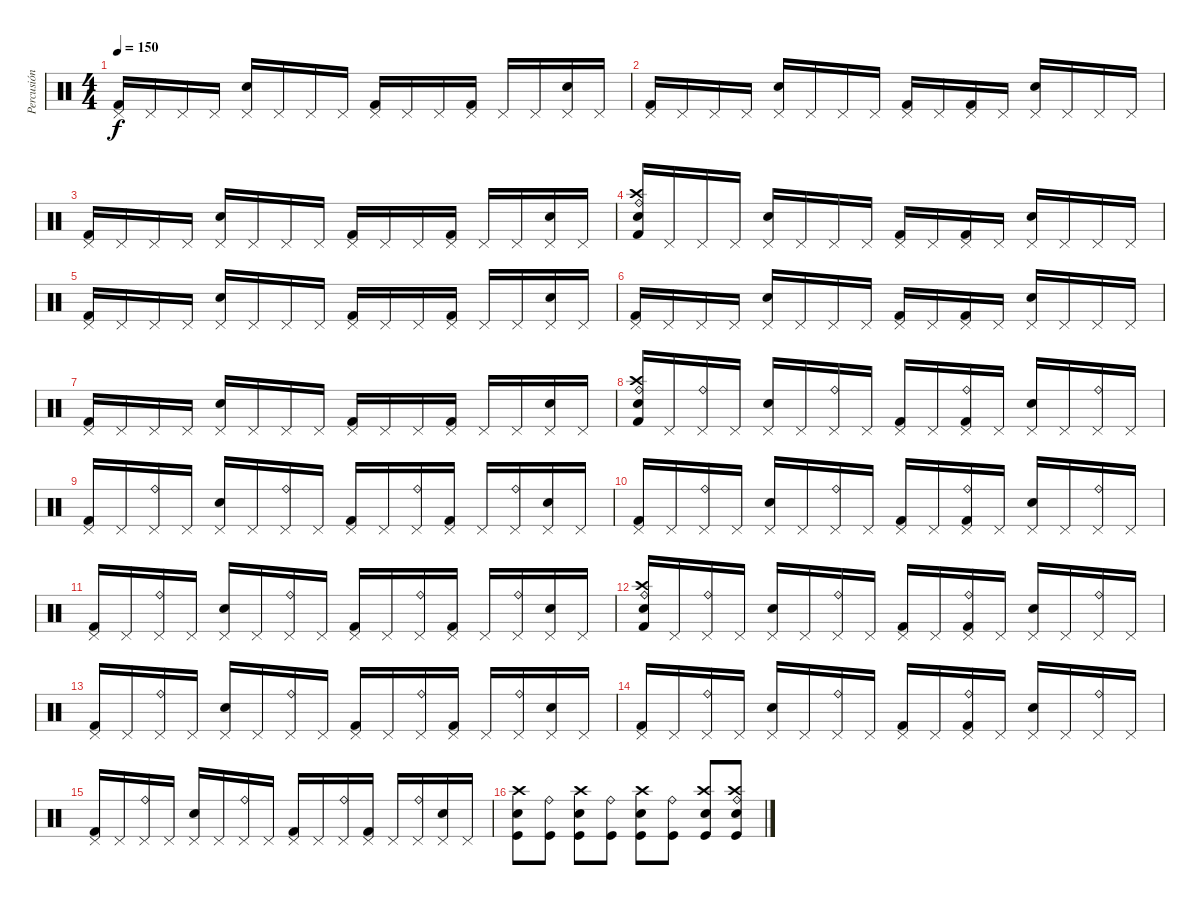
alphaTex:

\track ("Percusión" "Percusión") {instrument percussion}
\staff {score}
\articulation defaults
\ts (4 4)
\tempo 150
\clef neutral
\ks c
("Pedal Hi-Hat (hit)" "Kick (hit) 2").16{dy f} "Pedal Hi-Hat (hit)".16 "Pedal Hi-Hat (hit)".16 "Pedal Hi-Hat (hit)".16 ("Pedal Hi-Hat (hit)" "Electric Snare (hit)").16 "Pedal Hi-Hat (hit)".16 "Pedal Hi-Hat (hit)".16 "Pedal Hi-Hat (hit)".16 ("Pedal Hi-Hat (hit)" "Kick (hit) 2").16 "Pedal Hi-Hat (hit)".16 "Pedal Hi-Hat (hit)".16 ("Pedal Hi-Hat (hit)" "Kick (hit) 2").16 "Pedal Hi-Hat (hit)".16 "Pedal Hi-Hat (hit)".16 ("Pedal Hi-Hat (hit)" "Electric Snare (hit)").16 "Pedal Hi-Hat (hit)".16 |
("Pedal Hi-Hat (hit)" "Kick (hit) 2").16 "Pedal Hi-Hat (hit)".16 "Pedal Hi-Hat (hit)".16 "Pedal Hi-Hat (hit)".16 ("Pedal Hi-Hat (hit)" "Electric Snare (hit)").16 "Pedal Hi-Hat (hit)".16 "Pedal Hi-Hat (hit)".16 "Pedal Hi-Hat (hit)".16 ("Pedal Hi-Hat (hit)" "Kick (hit) 2").16 "Pedal Hi-Hat (hit)".16 ("Pedal Hi-Hat (hit)" "Kick (hit) 2").16 "Pedal Hi-Hat (hit)".16 ("Pedal Hi-Hat (hit)" "Electric Snare (hit)").16 "Pedal Hi-Hat (hit)".16 "Pedal Hi-Hat (hit)".16 "Pedal Hi-Hat (hit)".16 |
("Pedal Hi-Hat (hit)" "Kick (hit) 2").16 "Pedal Hi-Hat (hit)".16 "Pedal Hi-Hat (hit)".16 "Pedal Hi-Hat (hit)".16 ("Pedal Hi-Hat (hit)" "Electric Snare (hit)").16 "Pedal Hi-Hat (hit)".16 "Pedal Hi-Hat (hit)".16 "Pedal Hi-Hat (hit)".16 ("Pedal Hi-Hat (hit)" "Kick (hit) 2").16 "Pedal Hi-Hat (hit)".16 "Pedal Hi-Hat (hit)".16 ("Pedal Hi-Hat (hit)" "Kick (hit) 2").16 "Pedal Hi-Hat (hit)".16 "Pedal Hi-Hat (hit)".16 ("Pedal Hi-Hat (hit)" "Electric Snare (hit)").16 "Pedal Hi-Hat (hit)".16 |
("Crash high (hit)" "Ride (bell)" "Electric Snare (hit)" "Kick (hit) 2").16 "Pedal Hi-Hat (hit)".16 "Pedal Hi-Hat (hit)".16 "Pedal Hi-Hat (hit)".16 ("Pedal Hi-Hat (hit)" "Electric Snare (hit)").16 "Pedal Hi-Hat (hit)".16 "Pedal Hi-Hat (hit)".16 "Pedal Hi-Hat (hit)".16 ("Pedal Hi-Hat (hit)" "Kick (hit) 2").16 "Pedal Hi-Hat (hit)".16 ("Pedal Hi-Hat (hit)" "Kick (hit) 2").16 "Pedal Hi-Hat (hit)".16 ("Pedal Hi-Hat (hit)" "Electric Snare (hit)").16 "Pedal Hi-Hat (hit)".16 "Pedal Hi-Hat (hit)".16 "Pedal Hi-Hat (hit)".16 |
("Pedal Hi-Hat (hit)" "Kick (hit) 2").16 "Pedal Hi-Hat (hit)".16 "Pedal Hi-Hat (hit)".16 "Pedal Hi-Hat (hit)".16 ("Pedal Hi-Hat (hit)" "Electric Snare (hit)").16 "Pedal Hi-Hat (hit)".16 "Pedal Hi-Hat (hit)".16 "Pedal Hi-Hat (hit)".16 ("Pedal Hi-Hat (hit)" "Kick (hit) 2").16 "Pedal Hi-Hat (hit)".16 "Pedal Hi-Hat (hit)".16 ("Pedal Hi-Hat (hit)" "Kick (hit) 2").16 "Pedal Hi-Hat (hit)".16 "Pedal Hi-Hat (hit)".16 ("Pedal Hi-Hat (hit)" "Electric Snare (hit)").16 "Pedal Hi-Hat (hit)".16 |
("Pedal Hi-Hat (hit)" "Kick (hit) 2").16 "Pedal Hi-Hat (hit)".16 "Pedal Hi-Hat (hit)".16 "Pedal Hi-Hat (hit)".16 ("Pedal Hi-Hat (hit)" "Electric Snare (hit)").16 "Pedal Hi-Hat (hit)".16 "Pedal Hi-Hat (hit)".16 "Pedal Hi-Hat (hit)".16 ("Pedal Hi-Hat (hit)" "Kick (hit) 2").16 "Pedal Hi-Hat (hit)".16 ("Pedal Hi-Hat (hit)" "Kick (hit) 2").16 "Pedal Hi-Hat (hit)".16 ("Pedal Hi-Hat (hit)" "Electric Snare (hit)").16 "Pedal Hi-Hat (hit)".16 "Pedal Hi-Hat (hit)".16 "Pedal Hi-Hat (hit)".16 |
("Pedal Hi-Hat (hit)" "Kick (hit) 2").16 "Pedal Hi-Hat (hit)".16 "Pedal Hi-Hat (hit)".16 "Pedal Hi-Hat (hit)".16 ("Pedal Hi-Hat (hit)" "Electric Snare (hit)").16 "Pedal Hi-Hat (hit)".16 "Pedal Hi-Hat (hit)".16 "Pedal Hi-Hat (hit)".16 ("Pedal Hi-Hat (hit)" "Kick (hit) 2").16 "Pedal Hi-Hat (hit)".16 "Pedal Hi-Hat (hit)".16 ("Pedal Hi-Hat (hit)" "Kick (hit) 2").16 "Pedal Hi-Hat (hit)".16 "Pedal Hi-Hat (hit)".16 ("Pedal Hi-Hat (hit)" "Electric Snare (hit)").16 "Pedal Hi-Hat (hit)".16 |
("Crash high (hit)" "Ride (bell)" "Electric Snare (hit)" "Kick (hit) 2").16 "Pedal Hi-Hat (hit)".16 ("Pedal Hi-Hat (hit)" "Ride (bell)").16 "Pedal Hi-Hat (hit)".16 ("Pedal Hi-Hat (hit)" "Electric Snare (hit)").16 "Pedal Hi-Hat (hit)".16 ("Pedal Hi-Hat (hit)" "Ride (bell)").16 "Pedal Hi-Hat (hit)".16 ("Pedal Hi-Hat (hit)" "Kick (hit) 2").16 "Pedal Hi-Hat (hit)".16 ("Pedal Hi-Hat (hit)" "Ride (bell)" "Kick (hit) 2").16 "Pedal Hi-Hat (hit)".16 ("Pedal Hi-Hat (hit)" "Electric Snare (hit)").16 "Pedal Hi-Hat (hit)".16 ("Pedal Hi-Hat (hit)" "Ride (bell)").16 "Pedal Hi-Hat (hit)".16 |
("Pedal Hi-Hat (hit)" "Kick (hit) 2").16 "Pedal Hi-Hat (hit)".16 ("Pedal Hi-Hat (hit)" "Ride (bell)").16 "Pedal Hi-Hat (hit)".16 ("Pedal Hi-Hat (hit)" "Electric Snare (hit)").16 "Pedal Hi-Hat (hit)".16 ("Pedal Hi-Hat (hit)" "Ride (bell)").16 "Pedal Hi-Hat (hit)".16 ("Pedal Hi-Hat (hit)" "Kick (hit) 2").16 "Pedal Hi-Hat (hit)".16 ("Pedal Hi-Hat (hit)" "Ride (bell)").16 ("Pedal Hi-Hat (hit)" "Kick (hit) 2").16 "Pedal Hi-Hat (hit)".16 ("Pedal Hi-Hat (hit)" "Ride (bell)").16 ("Pedal Hi-Hat (hit)" "Electric Snare (hit)").16 "Pedal Hi-Hat (hit)".16 |
("Pedal Hi-Hat (hit)" "Kick (hit) 2").16 "Pedal Hi-Hat (hit)".16 ("Pedal Hi-Hat (hit)" "Ride (bell)").16 "Pedal Hi-Hat (hit)".16 ("Pedal Hi-Hat (hit)" "Electric Snare (hit)").16 "Pedal Hi-Hat (hit)".16 ("Pedal Hi-Hat (hit)" "Ride (bell)").16 "Pedal Hi-Hat (hit)".16 ("Pedal Hi-Hat (hit)" "Kick (hit) 2").16 "Pedal Hi-Hat (hit)".16 ("Pedal Hi-Hat (hit)" "Ride (bell)" "Kick (hit) 2").16 "Pedal Hi-Hat (hit)".16 ("Pedal Hi-Hat (hit)" "Electric Snare (hit)").16 "Pedal Hi-Hat (hit)".16 ("Pedal Hi-Hat (hit)" "Ride (bell)").16 "Pedal Hi-Hat (hit)".16 |
("Pedal Hi-Hat (hit)" "Kick (hit) 2").16 "Pedal Hi-Hat (hit)".16 ("Pedal Hi-Hat (hit)" "Ride (bell)").16 "Pedal Hi-Hat (hit)".16 ("Pedal Hi-Hat (hit)" "Electric Snare (hit)").16 "Pedal Hi-Hat (hit)".16 ("Pedal Hi-Hat (hit)" "Ride (bell)").16 "Pedal Hi-Hat (hit)".16 ("Pedal Hi-Hat (hit)" "Kick (hit) 2").16 "Pedal Hi-Hat (hit)".16 ("Pedal Hi-Hat (hit)" "Ride (bell)").16 ("Pedal Hi-Hat (hit)" "Kick (hit) 2").16 "Pedal Hi-Hat (hit)".16 ("Pedal Hi-Hat (hit)" "Ride (bell)").16 ("Pedal Hi-Hat (hit)" "Electric Snare (hit)").16 "Pedal Hi-Hat (hit)".16 |
("Crash high (hit)" "Ride (bell)" "Electric Snare (hit)" "Kick (hit) 2").16 "Pedal Hi-Hat (hit)".16 ("Pedal Hi-Hat (hit)" "Ride (bell)").16 "Pedal Hi-Hat (hit)".16 ("Pedal Hi-Hat (hit)" "Electric Snare (hit)").16 "Pedal Hi-Hat (hit)".16 ("Pedal Hi-Hat (hit)" "Ride (bell)").16 "Pedal Hi-Hat (hit)".16 ("Pedal Hi-Hat (hit)" "Kick (hit) 2").16 "Pedal Hi-Hat (hit)".16 ("Pedal Hi-Hat (hit)" "Ride (bell)" "Kick (hit) 2").16 "Pedal Hi-Hat (hit)".16 ("Pedal Hi-Hat (hit)" "Electric Snare (hit)").16 "Pedal Hi-Hat (hit)".16 ("Pedal Hi-Hat (hit)" "Ride (bell)").16 "Pedal Hi-Hat (hit)".16 |
("Pedal Hi-Hat (hit)" "Kick (hit) 2").16 "Pedal Hi-Hat (hit)".16 ("Pedal Hi-Hat (hit)" "Ride (bell)").16 "Pedal Hi-Hat (hit)".16 ("Pedal Hi-Hat (hit)" "Electric Snare (hit)").16 "Pedal Hi-Hat (hit)".16 ("Pedal Hi-Hat (hit)" "Ride (bell)").16 "Pedal Hi-Hat (hit)".16 ("Pedal Hi-Hat (hit)" "Kick (hit) 2").16 "Pedal Hi-Hat (hit)".16 ("Pedal Hi-Hat (hit)" "Ride (bell)").16 ("Pedal Hi-Hat (hit)" "Kick (hit) 2").16 "Pedal Hi-Hat (hit)".16 ("Pedal Hi-Hat (hit)" "Ride (bell)").16 ("Pedal Hi-Hat (hit)" "Electric Snare (hit)").16 "Pedal Hi-Hat (hit)".16 |
("Pedal Hi-Hat (hit)" "Kick (hit) 2").16 "Pedal Hi-Hat (hit)".16 ("Pedal Hi-Hat (hit)" "Ride (bell)").16 "Pedal Hi-Hat (hit)".16 ("Pedal Hi-Hat (hit)" "Electric Snare (hit)").16 "Pedal Hi-Hat (hit)".16 ("Pedal Hi-Hat (hit)" "Ride (bell)").16 "Pedal Hi-Hat (hit)".16 ("Pedal Hi-Hat (hit)" "Kick (hit) 2").16 "Pedal Hi-Hat (hit)".16 ("Pedal Hi-Hat (hit)" "Ride (bell)" "Kick (hit) 2").16 "Pedal Hi-Hat (hit)".16 ("Pedal Hi-Hat (hit)" "Electric Snare (hit)").16 "Pedal Hi-Hat (hit)".16 ("Pedal Hi-Hat (hit)" "Ride (bell)").16 "Pedal Hi-Hat (hit)".16 |
("Pedal Hi-Hat (hit)" "Kick (hit) 2").16 "Pedal Hi-Hat (hit)".16 ("Pedal Hi-Hat (hit)" "Ride (bell)").16 "Pedal Hi-Hat (hit)".16 ("Pedal Hi-Hat (hit)" "Electric Snare (hit)").16 "Pedal Hi-Hat (hit)".16 ("Pedal Hi-Hat (hit)" "Ride (bell)").16 "Pedal Hi-Hat (hit)".16 ("Pedal Hi-Hat (hit)" "Kick (hit) 2").16 "Pedal Hi-Hat (hit)".16 ("Pedal Hi-Hat (hit)" "Ride (bell)").16 ("Pedal Hi-Hat (hit)" "Kick (hit) 2").16 "Pedal Hi-Hat (hit)".16 ("Pedal Hi-Hat (hit)" "Ride (bell)").16 ("Pedal Hi-Hat (hit)" "Electric Snare (hit)").16 "Pedal Hi-Hat (hit)".16 |
("Crash high (hit)" "Electric Snare (hit)" "Kick (hit)").8 ("Ride (bell)" "Kick (hit)").8 ("Crash high (hit)" "Electric Snare (hit)" "Kick (hit)").8 ("Ride (bell)" "Kick (hit)").8 ("Crash high (hit)" "Electric Snare (hit)" "Kick (hit)").8 ("Ride (bell)" "Kick (hit)").8 ("Crash high (hit)" "Electric Snare (hit)" "Kick (hit)").8 ("Crash high (hit)" "Ride (bell)" "Electric Snare (hit)" "Kick (hit)").8
